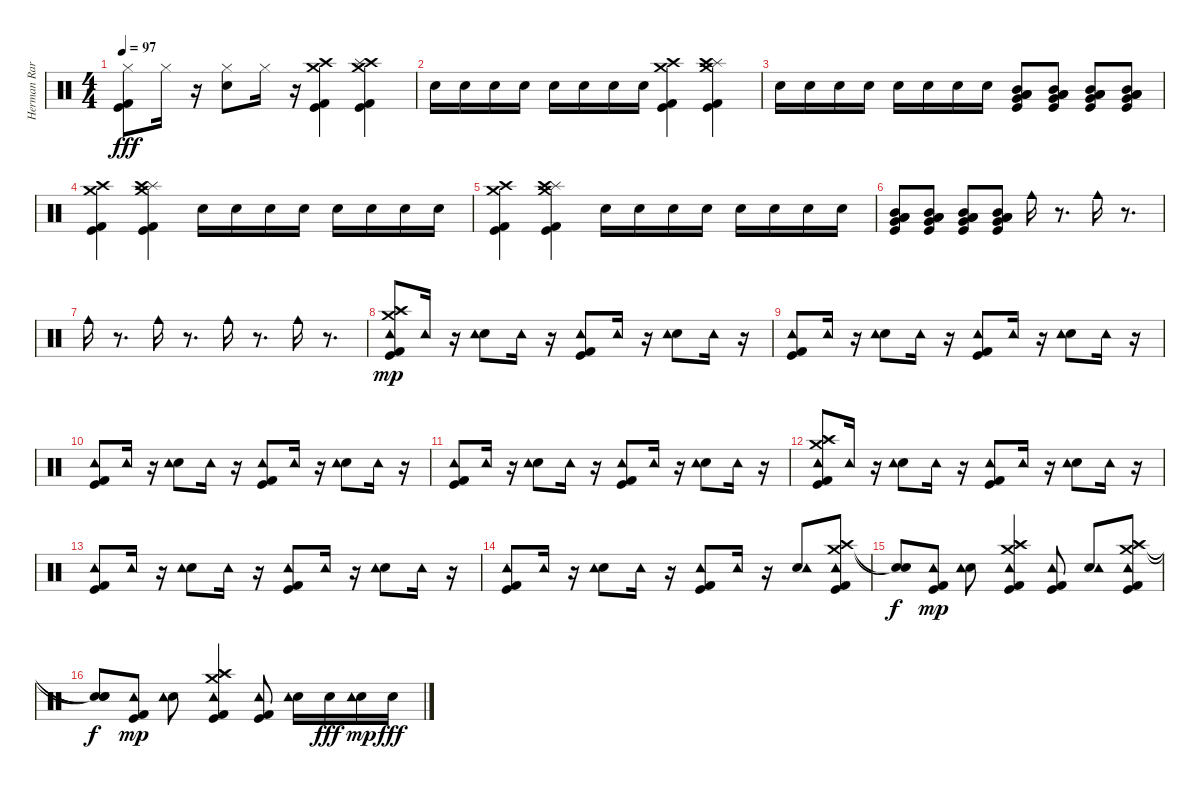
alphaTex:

\track ("Herman Rarebell - Drums and Percussion" "Herman Rar") {instrument percussion}
\staff {score}
\articulation defaults
\ts (4 4)
\tempo 97
\clef neutral
\ks c
("Hi-Hat (closed)" "Kick (hit)" "Kick (hit) 2").8{dy fff} "Hi-Hat (closed)".16 r.16 ("Hi-Hat (closed)" "Snare (hit) 2").8 "Hi-Hat (closed)".16 r.16 ("Kick (hit) 2" "Kick (hit)" "Crash high (hit)" "Crash medium (hit)").4 ("Kick (hit) 2" "Kick (hit)" "Crash high (hit)" "Crash medium (hit)" "Splash (hit)").4 |
"Snare (hit) 2".16 "Snare (hit) 2".16 "Snare (hit) 2".16 "Snare (hit) 2".16 "Snare (hit) 2".16 "Snare (hit) 2".16 "Snare (hit) 2".16 "Snare (hit) 2".16 ("Kick (hit) 2" "Kick (hit)" "Crash medium (hit)" "Crash high (hit)").4 ("Kick (hit)" "Kick (hit) 2" "Crash medium (hit)" "Splash (hit)" "Crash high (hit)").4 |
"Snare (hit) 2".16 "Snare (hit) 2".16 "Snare (hit) 2".16 "Snare (hit) 2".16 "Snare (hit) 2".16 "Snare (hit) 2".16 "Snare (hit) 2".16 "Snare (hit) 2".16 ("Mid Tom (hit)" "Low Tom (hit)" "Very Low Tom (hit)" "Low Floor Tom (hit)" "Kick (hit)").8 ("Mid Tom (hit)" "Low Tom (hit)" "Very Low Tom (hit)" "Low Floor Tom (hit)" "Kick (hit)").8 ("Mid Tom (hit)" "Low Tom (hit)" "Very Low Tom (hit)" "Low Floor Tom (hit)" "Kick (hit)").8 ("Mid Tom (hit)" "Low Tom (hit)" "Very Low Tom (hit)" "Low Floor Tom (hit)" "Kick (hit)").8 |
("Crash medium (hit)" "Crash high (hit)" "Kick (hit) 2" "Kick (hit)").4 ("Crash medium (hit)" "Splash (hit)" "Crash high (hit)" "Kick (hit)" "Kick (hit) 2").4 "Snare (hit) 2".16 "Snare (hit) 2".16 "Snare (hit) 2".16 "Snare (hit) 2".16 "Snare (hit) 2".16 "Snare (hit) 2".16 "Snare (hit) 2".16 "Snare (hit) 2".16 |
("Kick (hit) 2" "Kick (hit)" "Crash medium (hit)" "Crash high (hit)").4 ("Kick (hit)" "Kick (hit) 2" "Crash medium (hit)" "Splash (hit)" "Crash high (hit)").4 "Snare (hit) 2".16 "Snare (hit) 2".16 "Snare (hit) 2".16 "Snare (hit) 2".16 "Snare (hit) 2".16 "Snare (hit) 2".16 "Snare (hit) 2".16 "Snare (hit) 2".16 |
("Mid Tom (hit)" "Low Tom (hit)" "Very Low Tom (hit)" "Low Floor Tom (hit)" "Kick (hit)").8 ("Mid Tom (hit)" "Low Tom (hit)" "Very Low Tom (hit)" "Low Floor Tom (hit)" "Kick (hit)").8 ("Mid Tom (hit)" "Low Tom (hit)" "Very Low Tom (hit)" "Low Floor Tom (hit)" "Kick (hit)").8 ("Mid Tom (hit)" "Low Tom (hit)" "Very Low Tom (hit)" "Low Floor Tom (hit)" "Kick (hit)").8 "Cowbell medium (hit)".16 r.8{d} "Cowbell medium (hit)".16 r.8{d} |
"Cowbell medium (hit)".16 r.8{d} "Cowbell medium (hit)".16 r.8{d} "Cowbell medium (hit)".16 r.8{d} "Cowbell medium (hit)".16 r.8{d} |
("Kick (hit)" "Kick (hit) 2" "Crash medium (hit)" "Splash (hit)" "Crash high (hit)" "Tambourine (hit)").8{dy mp} "Tambourine (hit)".16 r.16 ("Snare (hit) 2" "Tambourine (hit)").8 "Tambourine (hit)".16 r.16 ("Kick (hit) 2" "Kick (hit)" "Tambourine (hit)").8 "Tambourine (hit)".16 r.16 ("Snare (hit) 2" "Tambourine (hit)").8 "Tambourine (hit)".16 r.16 |
("Kick (hit) 2" "Kick (hit)" "Tambourine (hit)").8 "Tambourine (hit)".16 r.16 ("Snare (hit) 2" "Tambourine (hit)").8 "Tambourine (hit)".16 r.16 ("Kick (hit) 2" "Kick (hit)" "Tambourine (hit)").8 "Tambourine (hit)".16 r.16 ("Snare (hit) 2" "Tambourine (hit)").8 "Tambourine (hit)".16 r.16 |
("Kick (hit) 2" "Kick (hit)" "Tambourine (hit)").8 "Tambourine (hit)".16 r.16 ("Snare (hit) 2" "Tambourine (hit)").8 "Tambourine (hit)".16 r.16 ("Kick (hit) 2" "Kick (hit)" "Tambourine (hit)").8 "Tambourine (hit)".16 r.16 ("Snare (hit) 2" "Tambourine (hit)").8 "Tambourine (hit)".16 r.16 |
("Kick (hit) 2" "Kick (hit)" "Tambourine (hit)").8 "Tambourine (hit)".16 r.16 ("Snare (hit) 2" "Tambourine (hit)").8 "Tambourine (hit)".16 r.16 ("Kick (hit) 2" "Kick (hit)" "Tambourine (hit)").8 "Tambourine (hit)".16 r.16 ("Snare (hit) 2" "Tambourine (hit)").8 "Tambourine (hit)".16 r.16 |
("Crash high (hit)" "Splash (hit)" "Crash medium (hit)" "Kick (hit) 2" "Kick (hit)" "Tambourine (hit)").8 "Tambourine (hit)".16 r.16 ("Snare (hit) 2" "Tambourine (hit)").8 "Tambourine (hit)".16 r.16 ("Kick (hit) 2" "Kick (hit)" "Tambourine (hit)").8 "Tambourine (hit)".16 r.16 ("Snare (hit) 2" "Tambourine (hit)").8 "Tambourine (hit)".16 r.16 |
("Kick (hit)" "Kick (hit) 2" "Tambourine (hit)").8 "Tambourine (hit)".16 r.16 ("Snare (hit) 2" "Tambourine (hit)").8 "Tambourine (hit)".16 r.16 ("Kick (hit) 2" "Kick (hit)" "Tambourine (hit)").8 "Tambourine (hit)".16 r.16 ("Snare (hit) 2" "Tambourine (hit)").8 "Tambourine (hit)".16 r.16 |
("Kick (hit)" "Kick (hit) 2" "Tambourine (hit)").8 "Tambourine (hit)".16 r.16 ("Snare (hit) 2" "Tambourine (hit)").8 "Tambourine (hit)".16 r.16 ("Kick (hit) 2" "Kick (hit)" "Tambourine (hit)").8 "Tambourine (hit)".16 r.16 ("Snare (hit) 2" "Tambourine (hit)").8 ("Crash high (hit)" "Crash medium (hit)" "Kick (hit)" "Kick (hit) 2" "Tambourine (hit)").8 |
("Snare (hit)"{t} "Snare (hit)"{t}).8{dy f} ("Kick (hit) 2" "Kick (hit)" "Tambourine (hit)").8{dy mp} ("Snare (hit) 2" "Tambourine (hit)").8 ("Crash medium (hit)" "Splash (hit)" "Crash high (hit)" "Kick (hit) 2" "Kick (hit)" "Tambourine (hit)").4 ("Kick (hit) 2" "Kick (hit)" "Tambourine (hit)").8 ("Snare (hit) 2" "Tambourine (hit)").8 ("Crash medium (hit)" "Splash (hit)" "Crash high (hit)" "Kick (hit) 2" "Kick (hit)" "Tambourine (hit)").8 |
("Snare (hit)"{t} "Snare (hit)"{t} "Snare (hit)"{t}).8{dy f} ("Kick (hit) 2" "Kick (hit)" "Tambourine (hit)").8{dy mp} ("Snare (hit) 2" "Tambourine (hit)").8 ("Crash high (hit)" "Splash (hit)" "Crash medium (hit)" "Kick (hit) 2" "Kick (hit)" "Tambourine (hit)").4 ("Kick (hit) 2" "Kick (hit)" "Tambourine (hit)").8 ("Snare (hit) 2" "Tambourine (hit)").16 "Snare (hit) 2".16{dy fff} ("Snare (hit) 2" "Tambourine (hit)").16{dy mp} "Snare (hit) 2".16{dy fff}
